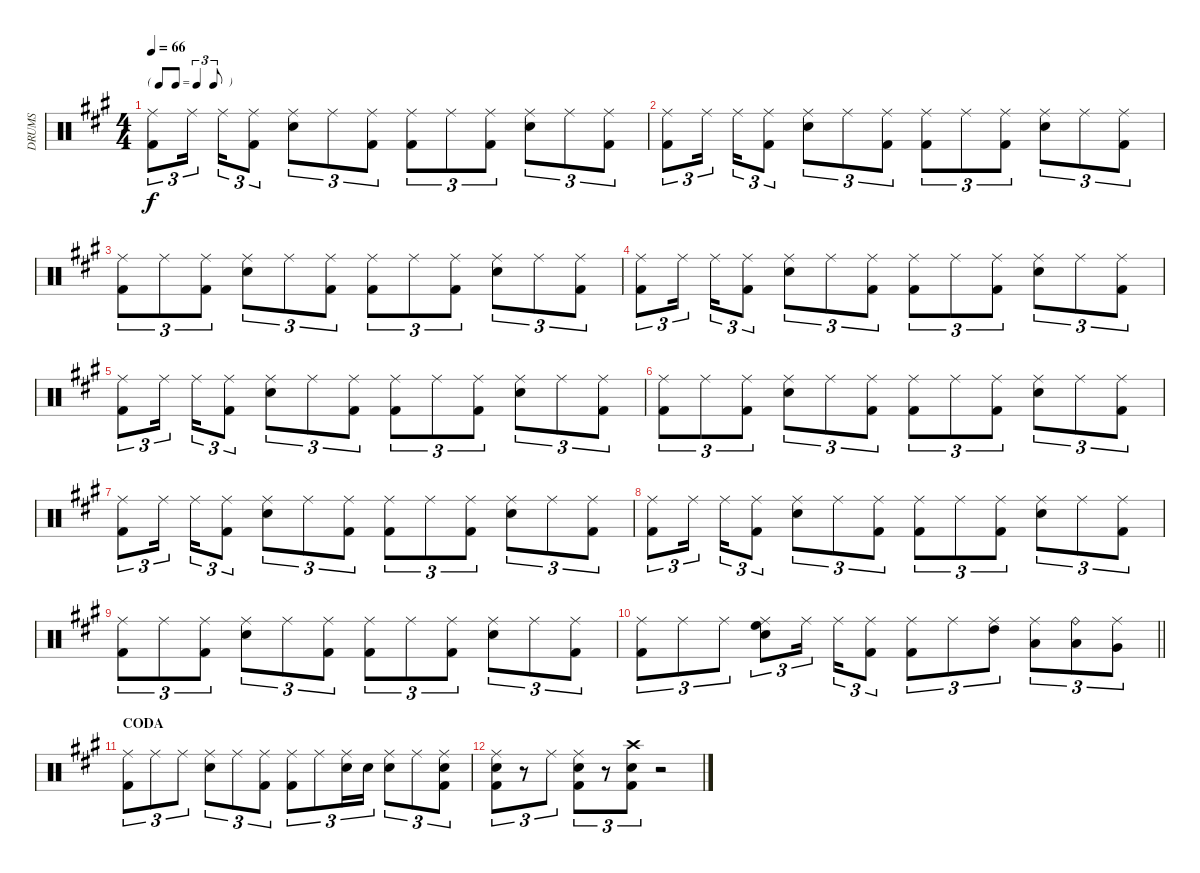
\track ("DRUMS" "DRUMS") {instrument percussion}
\staff {score}
\articulation defaults
\ts (4 4)
\tf triplet8th
\tempo 66
\clef neutral
\ks a
("Kick (hit) 2" "Ride (middle)").8{tu (3 2) dy f} "Ride (middle)".16{tu (3 2) beam splitsecondary} "Ride (middle)".16{tu (3 2)} ("Ride (middle)" "Kick (hit) 2").8{tu (3 2)} ("Snare (hit) 2" "Ride (middle)").8{tu (3 2)} "Ride (middle)".8{tu (3 2)} ("Ride (middle)" "Kick (hit) 2").8{tu (3 2)} ("Ride (middle)" "Kick (hit) 2").8{tu (3 2)} "Ride (middle)".8{tu (3 2)} ("Ride (middle)" "Kick (hit) 2").8{tu (3 2)} ("Snare (hit) 2" "Ride (middle)").8{tu (3 2)} "Ride (middle)".8{tu (3 2)} ("Ride (middle)" "Kick (hit) 2").8{tu (3 2)} |
("Kick (hit) 2" "Ride (middle)").8{tu (3 2)} "Ride (middle)".16{tu (3 2) beam splitsecondary} "Ride (middle)".16{tu (3 2)} ("Ride (middle)" "Kick (hit) 2").8{tu (3 2)} ("Snare (hit) 2" "Ride (middle)").8{tu (3 2)} "Ride (middle)".8{tu (3 2)} ("Ride (middle)" "Kick (hit) 2").8{tu (3 2)} ("Ride (middle)" "Kick (hit) 2").8{tu (3 2)} "Ride (middle)".8{tu (3 2)} ("Ride (middle)" "Kick (hit) 2").8{tu (3 2)} ("Snare (hit) 2" "Ride (middle)").8{tu (3 2)} "Ride (middle)".8{tu (3 2)} ("Ride (middle)" "Kick (hit) 2").8{tu (3 2)} |
("Ride (middle)" "Kick (hit) 2").8{tu (3 2)} "Ride (middle)".8{tu (3 2)} ("Kick (hit) 2" "Ride (middle)").8{tu (3 2)} ("Snare (hit) 2" "Ride (middle)").8{tu (3 2)} "Ride (middle)".8{tu (3 2)} ("Ride (middle)" "Kick (hit) 2").8{tu (3 2)} ("Ride (middle)" "Kick (hit) 2").8{tu (3 2)} "Ride (middle)".8{tu (3 2)} ("Ride (middle)" "Kick (hit) 2").8{tu (3 2)} ("Snare (hit) 2" "Ride (middle)").8{tu (3 2)} "Ride (middle)".8{tu (3 2)} ("Ride (middle)" "Kick (hit) 2").8{tu (3 2)} |
("Kick (hit) 2" "Ride (middle)").8{tu (3 2)} "Ride (middle)".16{tu (3 2) beam splitsecondary} "Ride (middle)".16{tu (3 2)} ("Ride (middle)" "Kick (hit) 2").8{tu (3 2)} ("Snare (hit) 2" "Ride (middle)").8{tu (3 2)} "Ride (middle)".8{tu (3 2)} ("Ride (middle)" "Kick (hit) 2").8{tu (3 2)} ("Ride (middle)" "Kick (hit) 2").8{tu (3 2)} "Ride (middle)".8{tu (3 2)} ("Ride (middle)" "Kick (hit) 2").8{tu (3 2)} ("Snare (hit) 2" "Ride (middle)").8{tu (3 2)} "Ride (middle)".8{tu (3 2)} ("Ride (middle)" "Kick (hit) 2").8{tu (3 2)} |
("Kick (hit) 2" "Ride (middle)").8{tu (3 2)} "Ride (middle)".16{tu (3 2) beam splitsecondary} "Ride (middle)".16{tu (3 2)} ("Ride (middle)" "Kick (hit) 2").8{tu (3 2)} ("Snare (hit) 2" "Ride (middle)").8{tu (3 2)} "Ride (middle)".8{tu (3 2)} ("Ride (middle)" "Kick (hit) 2").8{tu (3 2)} ("Ride (middle)" "Kick (hit) 2").8{tu (3 2)} "Ride (middle)".8{tu (3 2)} ("Ride (middle)" "Kick (hit) 2").8{tu (3 2)} ("Snare (hit) 2" "Ride (middle)").8{tu (3 2)} "Ride (middle)".8{tu (3 2)} ("Ride (middle)" "Kick (hit) 2").8{tu (3 2)} |
("Ride (middle)" "Kick (hit) 2").8{tu (3 2)} "Ride (middle)".8{tu (3 2)} ("Kick (hit) 2" "Ride (middle)").8{tu (3 2)} ("Snare (hit) 2" "Ride (middle)").8{tu (3 2)} "Ride (middle)".8{tu (3 2)} ("Ride (middle)" "Kick (hit) 2").8{tu (3 2)} ("Ride (middle)" "Kick (hit) 2").8{tu (3 2)} "Ride (middle)".8{tu (3 2)} ("Ride (middle)" "Kick (hit) 2").8{tu (3 2)} ("Snare (hit) 2" "Ride (middle)").8{tu (3 2)} "Ride (middle)".8{tu (3 2)} ("Ride (middle)" "Kick (hit) 2").8{tu (3 2)} |
("Kick (hit) 2" "Ride (middle)").8{tu (3 2)} "Ride (middle)".16{tu (3 2) beam splitsecondary} "Ride (middle)".16{tu (3 2)} ("Ride (middle)" "Kick (hit) 2").8{tu (3 2)} ("Snare (hit) 2" "Ride (middle)").8{tu (3 2)} "Ride (middle)".8{tu (3 2)} ("Ride (middle)" "Kick (hit) 2").8{tu (3 2)} ("Ride (middle)" "Kick (hit) 2").8{tu (3 2)} "Ride (middle)".8{tu (3 2)} ("Ride (middle)" "Kick (hit) 2").8{tu (3 2)} ("Snare (hit) 2" "Ride (middle)").8{tu (3 2)} "Ride (middle)".8{tu (3 2)} ("Ride (middle)" "Kick (hit) 2").8{tu (3 2)} |
("Kick (hit) 2" "Ride (middle)").8{tu (3 2)} "Ride (middle)".16{tu (3 2) beam splitsecondary} "Ride (middle)".16{tu (3 2)} ("Ride (middle)" "Kick (hit) 2").8{tu (3 2)} ("Snare (hit) 2" "Ride (middle)").8{tu (3 2)} "Ride (middle)".8{tu (3 2)} ("Ride (middle)" "Kick (hit) 2").8{tu (3 2)} ("Ride (middle)" "Kick (hit) 2").8{tu (3 2)} "Ride (middle)".8{tu (3 2)} ("Ride (middle)" "Kick (hit) 2").8{tu (3 2)} ("Snare (hit) 2" "Ride (middle)").8{tu (3 2)} "Ride (middle)".8{tu (3 2)} ("Ride (middle)" "Kick (hit) 2").8{tu (3 2)} |
("Ride (middle)" "Kick (hit) 2").8{tu (3 2)} "Ride (middle)".8{tu (3 2)} ("Kick (hit) 2" "Ride (middle)").8{tu (3 2)} ("Snare (hit) 2" "Ride (middle)").8{tu (3 2)} "Ride (middle)".8{tu (3 2)} ("Ride (middle)" "Kick (hit) 2").8{tu (3 2)} ("Ride (middle)" "Kick (hit) 2").8{tu (3 2)} "Ride (middle)".8{tu (3 2)} ("Ride (middle)" "Kick (hit) 2").8{tu (3 2)} ("Snare (hit) 2" "Ride (middle)").8{tu (3 2)} "Ride (middle)".8{tu (3 2)} ("Ride (middle)" "Kick (hit) 2").8{tu (3 2)} |
\barLineRight lightlight
("Ride (middle)" "Kick (hit) 2").8{tu (3 2)} "Ride (middle)".8{tu (3 2)} "Ride (middle)".8{tu (3 2)} ("Ride (middle)" "Snare (hit) 2" "High Floor Tom (hit)").8{tu (3 2)} "Ride (middle)".16{tu (3 2) beam splitsecondary} "Ride (middle)".16{tu (3 2)} ("Kick (hit) 2" "Ride (middle)").8{tu (3 2)} ("Kick (hit) 2" "Ride (middle)").8{tu (3 2)} "Ride (middle)".8{tu (3 2)} ("High Tom (hit)" "Ride (middle)").8{tu (3 2)} ("Low Tom (hit)" "Ride (middle)").8{tu (3 2)} ("Ride (bell)" "Low Tom (hit)").8{tu (3 2)} ("Ride (middle)" "Very Low Tom (hit)").8{tu (3 2)} |
\section ("" "CODA")
("Kick (hit) 2" "Ride (middle)").8{tu (3 2)} "Ride (middle)".8{tu (3 2)} "Ride (middle)".8{tu (3 2)} ("Snare (hit) 2" "Ride (middle)").8{tu (3 2)} "Ride (middle)".8{tu (3 2)} ("Kick (hit) 2" "Ride (middle)").8{tu (3 2)} ("Kick (hit) 2" "Ride (middle)").8{tu (3 2)} "Ride (middle)".8{tu (3 2)} ("Snare (hit) 2" "Ride (middle)").16{tu (3 2)} "Snare (hit) 2".16{tu (3 2)} ("Snare (hit) 2" "Ride (middle)").8{tu (3 2)} "Ride (middle)".8{tu (3 2)} ("Kick (hit) 2" "Snare (hit) 2" "Ride (middle)").8{tu (3 2)} |
("Kick (hit) 2" "Snare (hit) 2" "Ride (middle)").8{tu (3 2)} r.8{tu (3 2)} "Ride (middle)".8{tu (3 2)} ("Kick (hit) 2" "Snare (hit) 2" "Ride (middle)").8{tu (3 2)} r.8{tu (3 2)} ("Kick (hit) 2" "Snare (hit) 2" "Crash high (hit)").8{tu (3 2)} r.2
